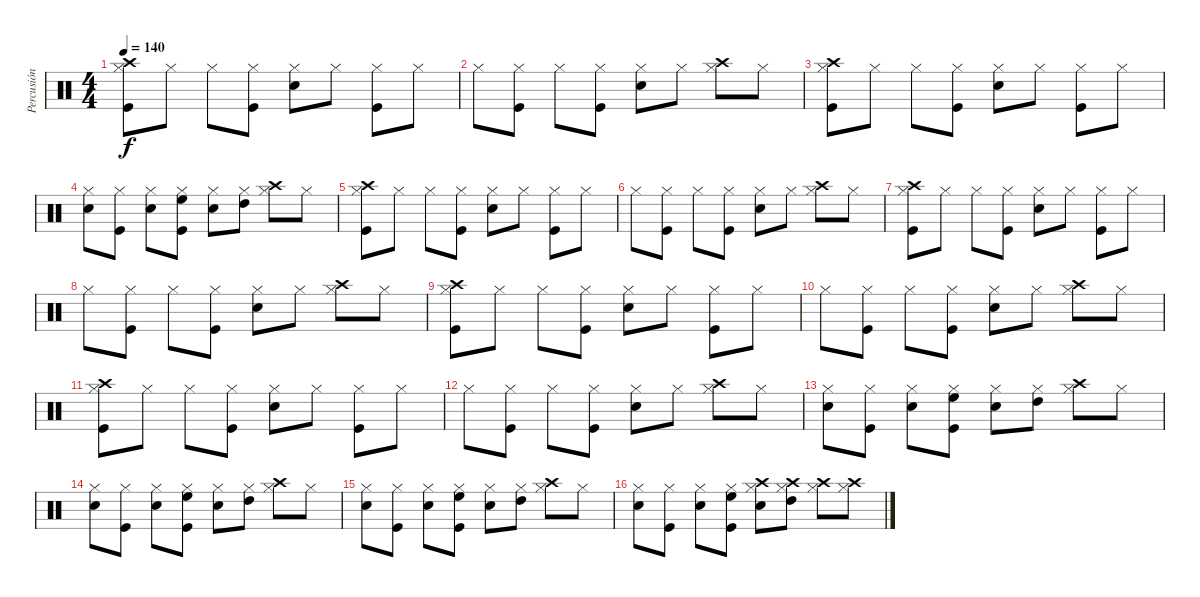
\track ("Percusión" "Percusión") {instrument percussion}
\staff {score}
\articulation defaults
\ts (4 4)
\tempo 140
\clef neutral
\ks c
("Crash high (hit)" "Hi-Hat (closed)" "Kick (hit)").8{dy f} "Hi-Hat (closed)".8 "Hi-Hat (closed)".8 ("Hi-Hat (closed)" "Kick (hit)").8 ("Hi-Hat (closed)" "Electric Snare (hit)").8 "Hi-Hat (closed)".8 ("Hi-Hat (closed)" "Kick (hit)").8 "Hi-Hat (closed)".8 |
"Hi-Hat (closed)".8 ("Hi-Hat (closed)" "Kick (hit)").8 "Hi-Hat (closed)".8 ("Hi-Hat (closed)" "Kick (hit)").8 ("Hi-Hat (closed)" "Electric Snare (hit)").8 "Hi-Hat (closed)".8 ("Crash high (hit)" "Hi-Hat (closed)").8 "Hi-Hat (closed)".8 |
("Crash high (hit)" "Hi-Hat (closed)" "Kick (hit)").8 "Hi-Hat (closed)".8 "Hi-Hat (closed)".8 ("Hi-Hat (closed)" "Kick (hit)").8 ("Hi-Hat (closed)" "Electric Snare (hit)").8 "Hi-Hat (closed)".8 ("Hi-Hat (closed)" "Kick (hit)").8 "Hi-Hat (closed)".8 |
("Hi-Hat (closed)" "Electric Snare (hit)").8 ("Hi-Hat (closed)" "Kick (hit)").8 ("Hi-Hat (closed)" "Electric Snare (hit)").8 ("Hi-Hat (closed)" "High Floor Tom (hit)" "Kick (hit)").8 ("Hi-Hat (closed)" "Electric Snare (hit)").8 ("Hi-Hat (closed)" "High Tom (hit)").8 ("Crash high (hit)" "Hi-Hat (closed)").8 "Hi-Hat (closed)".8 |
("Crash high (hit)" "Hi-Hat (closed)" "Kick (hit)").8 "Hi-Hat (closed)".8 "Hi-Hat (closed)".8 ("Hi-Hat (closed)" "Kick (hit)").8 ("Hi-Hat (closed)" "Electric Snare (hit)").8 "Hi-Hat (closed)".8 ("Hi-Hat (closed)" "Kick (hit)").8 "Hi-Hat (closed)".8 |
"Hi-Hat (closed)".8 ("Hi-Hat (closed)" "Kick (hit)").8 "Hi-Hat (closed)".8 ("Hi-Hat (closed)" "Kick (hit)").8 ("Hi-Hat (closed)" "Electric Snare (hit)").8 "Hi-Hat (closed)".8 ("Crash high (hit)" "Hi-Hat (closed)").8 "Hi-Hat (closed)".8 |
("Crash high (hit)" "Hi-Hat (closed)" "Kick (hit)").8 "Hi-Hat (closed)".8 "Hi-Hat (closed)".8 ("Hi-Hat (closed)" "Kick (hit)").8 ("Hi-Hat (closed)" "Electric Snare (hit)").8 "Hi-Hat (closed)".8 ("Hi-Hat (closed)" "Kick (hit)").8 "Hi-Hat (closed)".8 |
"Hi-Hat (closed)".8 ("Hi-Hat (closed)" "Kick (hit)").8 "Hi-Hat (closed)".8 ("Hi-Hat (closed)" "Kick (hit)").8 ("Hi-Hat (closed)" "Electric Snare (hit)").8 "Hi-Hat (closed)".8 ("Crash high (hit)" "Hi-Hat (closed)").8 "Hi-Hat (closed)".8 |
("Crash high (hit)" "Hi-Hat (closed)" "Kick (hit)").8 "Hi-Hat (closed)".8 "Hi-Hat (closed)".8 ("Hi-Hat (closed)" "Kick (hit)").8 ("Hi-Hat (closed)" "Electric Snare (hit)").8 "Hi-Hat (closed)".8 ("Hi-Hat (closed)" "Kick (hit)").8 "Hi-Hat (closed)".8 |
"Hi-Hat (closed)".8 ("Hi-Hat (closed)" "Kick (hit)").8 "Hi-Hat (closed)".8 ("Hi-Hat (closed)" "Kick (hit)").8 ("Hi-Hat (closed)" "Electric Snare (hit)").8 "Hi-Hat (closed)".8 ("Crash high (hit)" "Hi-Hat (closed)").8 "Hi-Hat (closed)".8 |
("Crash high (hit)" "Hi-Hat (closed)" "Kick (hit)").8 "Hi-Hat (closed)".8 "Hi-Hat (closed)".8 ("Hi-Hat (closed)" "Kick (hit)").8 ("Hi-Hat (closed)" "Electric Snare (hit)").8 "Hi-Hat (closed)".8 ("Hi-Hat (closed)" "Kick (hit)").8 "Hi-Hat (closed)".8 |
"Hi-Hat (closed)".8 ("Hi-Hat (closed)" "Kick (hit)").8 "Hi-Hat (closed)".8 ("Hi-Hat (closed)" "Kick (hit)").8 ("Hi-Hat (closed)" "Electric Snare (hit)").8 "Hi-Hat (closed)".8 ("Crash high (hit)" "Hi-Hat (closed)").8 "Hi-Hat (closed)".8 |
("Hi-Hat (closed)" "Electric Snare (hit)").8 ("Hi-Hat (closed)" "Kick (hit)").8 ("Hi-Hat (closed)" "Electric Snare (hit)").8 ("Hi-Hat (closed)" "High Floor Tom (hit)" "Kick (hit)").8 ("Hi-Hat (closed)" "Electric Snare (hit)").8 ("Hi-Hat (closed)" "High Tom (hit)").8 ("Crash high (hit)" "Hi-Hat (closed)").8 "Hi-Hat (closed)".8 |
("Hi-Hat (closed)" "Electric Snare (hit)").8 ("Hi-Hat (closed)" "Kick (hit)").8 ("Hi-Hat (closed)" "Electric Snare (hit)").8 ("Hi-Hat (closed)" "High Floor Tom (hit)" "Kick (hit)").8 ("Hi-Hat (closed)" "Electric Snare (hit)").8 ("Hi-Hat (closed)" "High Tom (hit)").8 ("Crash high (hit)" "Hi-Hat (closed)").8 "Hi-Hat (closed)".8 |
("Hi-Hat (closed)" "Electric Snare (hit)").8 ("Hi-Hat (closed)" "Kick (hit)").8 ("Hi-Hat (closed)" "Electric Snare (hit)").8 ("Hi-Hat (closed)" "High Floor Tom (hit)" "Kick (hit)").8 ("Hi-Hat (closed)" "Electric Snare (hit)").8 ("Hi-Hat (closed)" "High Tom (hit)").8 ("Crash high (hit)" "Hi-Hat (closed)").8 "Hi-Hat (closed)".8 |
("Hi-Hat (closed)" "Electric Snare (hit)").8 ("Hi-Hat (closed)" "Kick (hit)").8 ("Hi-Hat (closed)" "Electric Snare (hit)").8 ("Hi-Hat (closed)" "High Floor Tom (hit)" "Kick (hit)").8 ("Crash high (hit)" "Hi-Hat (closed)" "Electric Snare (hit)").8 ("Crash high (hit)" "Hi-Hat (closed)" "High Tom (hit)").8 ("Crash high (hit)" "Hi-Hat (closed)").8 ("Crash high (hit)" "Hi-Hat (closed)").8
